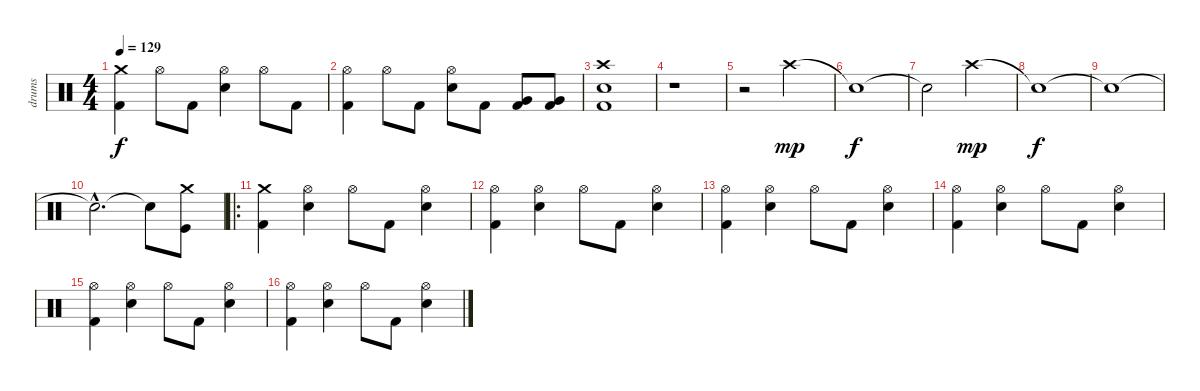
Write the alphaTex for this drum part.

\track ("drums" "drums") {instrument percussion}
\staff {score}
\articulation defaults
\ts (4 4)
\tempo 129
\clef neutral
\ks c
("Kick (hit) 2" "Crash medium (hit)").4{dy f} "Hi-Hat (open)".8 "Kick (hit) 2".8 ("Hi-Hat (open)" "Snare (hit) 2").4 "Hi-Hat (open)".8 "Kick (hit) 2".8 |
("Kick (hit) 2" "Hi-Hat (open)").4 "Hi-Hat (open)".8 "Kick (hit) 2".8 ("Hi-Hat (open)" "Snare (hit) 2").8 "Kick (hit) 2".8 ("Kick (hit) 2" "Very Low Tom (hit)").8 ("Kick (hit) 2" "Very Low Tom (hit)").8 |
("Kick (hit) 2" "Crash high (hit)" "Snare (hit) 2").1 |
r.1 |
r.2 "Crash high (hit)".2{dy mp} |
"Snare (hit)"{t}.1{dy f} |
"Snare (hit)"{t}.2 "Crash high (hit)".2{dy mp} |
"Snare (hit)"{t}.1{dy f} |
"Snare (hit)"{t}.1 |
"Snare (hit)"{hac t}.2{d} "Snare (hit)"{t}.8 ("Kick (hit)" "Crash medium (hit)").8 |
\ro
("Kick (hit) 2" "Crash medium (hit)").4 ("Hi-Hat (open)" "Snare (hit) 2").4 "Hi-Hat (open)".8 "Kick (hit) 2".8 ("Hi-Hat (open)" "Snare (hit) 2").4 |
("Kick (hit) 2" "Hi-Hat (open)").4 ("Hi-Hat (open)" "Snare (hit) 2").4 "Hi-Hat (open)".8 "Kick (hit) 2".8 ("Hi-Hat (open)" "Snare (hit) 2").4 |
("Kick (hit) 2" "Hi-Hat (open)").4 ("Hi-Hat (open)" "Snare (hit) 2").4 "Hi-Hat (open)".8 "Kick (hit) 2".8 ("Hi-Hat (open)" "Snare (hit) 2").4 |
("Kick (hit) 2" "Hi-Hat (open)").4 ("Hi-Hat (open)" "Snare (hit) 2").4 "Hi-Hat (open)".8 "Kick (hit) 2".8 ("Hi-Hat (open)" "Snare (hit) 2").4 |
("Kick (hit) 2" "Hi-Hat (open)").4 ("Hi-Hat (open)" "Snare (hit) 2").4 "Hi-Hat (open)".8 "Kick (hit) 2".8 ("Hi-Hat (open)" "Snare (hit) 2").4 |
("Kick (hit) 2" "Hi-Hat (open)").4 ("Hi-Hat (open)" "Snare (hit) 2").4 "Hi-Hat (open)".8 "Kick (hit) 2".8 ("Hi-Hat (open)" "Snare (hit) 2").4
